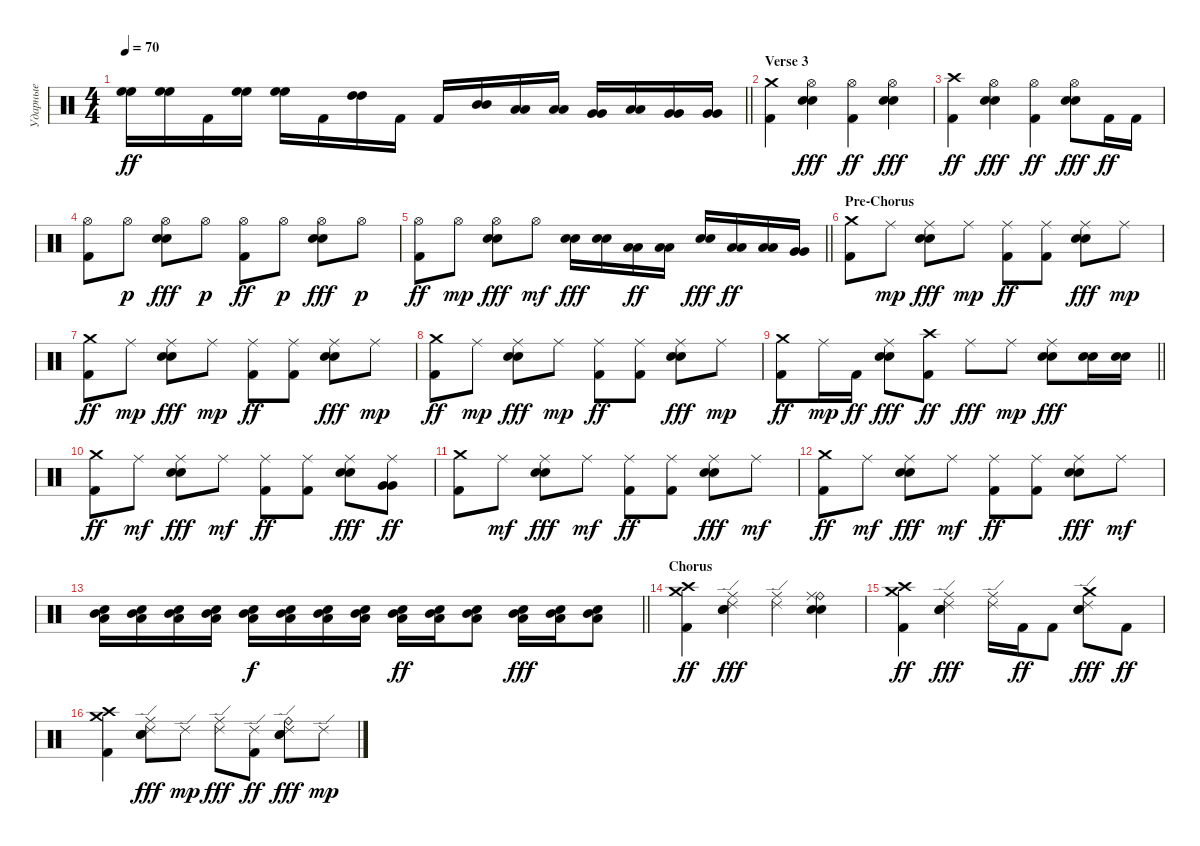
\track ("Ударные" "Ударные") {instrument percussion}
\staff {score}
\articulation defaults
\ts (4 4)
\tempo 70
\clef neutral
\barLineRight lightlight
\ks aminor
("High Floor Tom (hit)" "High Floor Tom (hit)").16{dy ff} ("High Floor Tom (hit)" "High Floor Tom (hit)").16 "Kick (hit) 2".16 ("High Floor Tom (hit)" "High Floor Tom (hit)").16 ("High Floor Tom (hit)" "High Floor Tom (hit)").16 "Kick (hit) 2".16 ("High Tom (hit)" "High Tom (hit)").16 "Kick (hit) 2".16 "Kick (hit) 2".16 ("Mid Tom (hit)" "Mid Tom (hit)").16 ("Low Tom (hit)" "Low Tom (hit)").16 ("Low Tom (hit)" "Low Tom (hit)").16 ("Very Low Tom (hit)" "Very Low Tom (hit)").16 ("Low Floor Tom (hit)" "Low Floor Tom (hit)").16 ("Very Low Tom (hit)" "Very Low Tom (hit)").16 ("Very Low Tom (hit)" "Very Low Tom (hit)").16 |
\section ("" "Verse 3")
("Crash medium (hit)" "Kick (hit) 2").4 ("Hi-Hat (open)" "Snare (hit) 2" "Electric Snare (hit)").4{dy fff} ("Hi-Hat (open)" "Kick (hit) 2").4{dy ff} ("Hi-Hat (open)" "Snare (hit) 2" "Electric Snare (hit)").4{dy fff} |
("Crash high (hit)" "Kick (hit) 2").4{dy ff} ("Hi-Hat (open)" "Snare (hit) 2" "Electric Snare (hit)").4{dy fff} ("Hi-Hat (open)" "Kick (hit) 2").4{dy ff} ("Hi-Hat (open)" "Snare (hit) 2" "Electric Snare (hit)").8{dy fff} "Kick (hit) 2".16{dy ff} "Kick (hit) 2".16 |
("Hi-Hat (open)" "Kick (hit) 2").8 "Hi-Hat (open)".8{dy p} ("Hi-Hat (open)" "Snare (hit) 2" "Electric Snare (hit)").8{dy fff} "Hi-Hat (open)".8{dy p} ("Hi-Hat (open)" "Kick (hit) 2").8{dy ff} "Hi-Hat (open)".8{dy p} ("Hi-Hat (open)" "Snare (hit) 2" "Electric Snare (hit)").8{dy fff} "Hi-Hat (open)".8{dy p} |
\barLineRight lightlight
("Hi-Hat (open)" "Kick (hit) 2").8{dy ff} "Hi-Hat (open)".8{dy mp} ("Hi-Hat (open)" "Snare (hit) 2" "Electric Snare (hit)").8{dy fff} "Hi-Hat (open)".8{dy mf} ("Snare (hit) 2" "Electric Snare (hit)").16{dy fff} ("Snare (hit) 2" "Electric Snare (hit)").16 ("Low Tom (hit)" "Low Tom (hit)").16{dy ff} ("Low Tom (hit)" "Low Tom (hit)").16 ("Snare (hit) 2" "Electric Snare (hit)").16{dy fff} ("Low Tom (hit)" "Low Tom (hit)").16{dy ff} ("Low Tom (hit)" "Low Tom (hit)").16 ("Very Low Tom (hit)" "Very Low Tom (hit)").16 |
\section ("" "Pre-Chorus")
("Crash medium (hit)" "Kick (hit) 2").8 "Ride (middle)".8{dy mp} ("Ride (middle)" "Snare (hit) 2" "Electric Snare (hit)").8{dy fff} "Ride (middle)".8{dy mp} ("Ride (middle)" "Kick (hit) 2").8{dy ff} ("Ride (middle)" "Kick (hit) 2").8 ("Ride (middle)" "Snare (hit) 2" "Electric Snare (hit)").8{dy fff} "Ride (middle)".8{dy mp} |
("Crash medium (hit)" "Kick (hit) 2").8{dy ff} "Ride (middle)".8{dy mp} ("Ride (middle)" "Snare (hit) 2" "Electric Snare (hit)").8{dy fff} "Ride (middle)".8{dy mp} ("Ride (middle)" "Kick (hit) 2").8{dy ff} ("Ride (middle)" "Kick (hit) 2").8 ("Ride (middle)" "Snare (hit) 2" "Electric Snare (hit)").8{dy fff} "Ride (middle)".8{dy mp} |
("Crash medium (hit)" "Kick (hit) 2").8{dy ff} "Ride (middle)".8{dy mp} ("Ride (middle)" "Snare (hit) 2" "Electric Snare (hit)").8{dy fff} "Ride (middle)".8{dy mp} ("Ride (middle)" "Kick (hit) 2").8{dy ff} ("Ride (middle)" "Kick (hit) 2").8 ("Ride (middle)" "Snare (hit) 2" "Electric Snare (hit)").8{dy fff} "Ride (middle)".8{dy mp} |
\barLineRight lightlight
("Crash medium (hit)" "Kick (hit) 2").8{dy ff} "Ride (middle)".16{dy mp} "Kick (hit) 2".16{dy ff} ("Ride (middle)" "Snare (hit) 2" "Electric Snare (hit)").8{dy fff} ("Crash high (hit)" "Kick (hit) 2").8{dy ff} "Ride (middle)".8{dy fff} "Ride (middle)".8{dy mp} ("Ride (middle)" "Snare (hit) 2" "Electric Snare (hit)").8{dy fff} ("Snare (hit) 2" "Electric Snare (hit)").16 ("Snare (hit) 2" "Electric Snare (hit)").16 |
("Crash medium (hit)" "Kick (hit) 2").8{dy ff} "Ride (middle)".8{dy mf} ("Ride (middle)" "Snare (hit) 2" "Electric Snare (hit)").8{dy fff} "Ride (middle)".8{dy mf} ("Ride (middle)" "Kick (hit) 2").8{dy ff} ("Ride (middle)" "Kick (hit) 2").8 ("Ride (middle)" "Snare (hit) 2" "Electric Snare (hit)").8{dy fff} ("Ride (middle)" "Very Low Tom (hit)" "Very Low Tom (hit)").8{dy ff} |
("Crash medium (hit)" "Kick (hit) 2").8 "Ride (middle)".8{dy mf} ("Ride (middle)" "Snare (hit) 2" "Electric Snare (hit)").8{dy fff} "Ride (middle)".8{dy mf} ("Ride (middle)" "Kick (hit) 2").8{dy ff} ("Ride (middle)" "Kick (hit) 2").8 ("Ride (middle)" "Snare (hit) 2" "Electric Snare (hit)").8{dy fff} "Ride (middle)".8{dy mf} |
("Crash medium (hit)" "Kick (hit) 2").8{dy ff} "Ride (middle)".8{dy mf} ("Ride (middle)" "Snare (hit) 2" "Electric Snare (hit)").8{dy fff} "Ride (middle)".8{dy mf} ("Ride (middle)" "Kick (hit) 2").8{dy ff} ("Ride (middle)" "Kick (hit) 2").8 ("Ride (middle)" "Snare (hit) 2" "Electric Snare (hit)").8{dy fff} "Ride (middle)".8{dy mf} |
\barLineRight lightlight
("Mid Tom (hit)" "Low Tom (hit)" "Snare (hit) 2").16 ("Mid Tom (hit)" "Low Tom (hit)" "Snare (hit) 2").16 ("Mid Tom (hit)" "Low Tom (hit)" "Snare (hit) 2").16 ("Mid Tom (hit)" "Low Tom (hit)" "Snare (hit) 2").16 ("Mid Tom (hit)" "Low Tom (hit)" "Snare (hit) 2").16{dy f} ("Mid Tom (hit)" "Low Tom (hit)" "Snare (hit) 2").16 ("Mid Tom (hit)" "Low Tom (hit)" "Snare (hit) 2").16 ("Mid Tom (hit)" "Low Tom (hit)" "Snare (hit) 2").16 ("Mid Tom (hit)" "Low Tom (hit)" "Snare (hit) 2").16{dy ff} ("Mid Tom (hit)" "Low Tom (hit)" "Snare (hit) 2").16 ("Mid Tom (hit)" "Low Tom (hit)" "Snare (hit) 2").8 ("Mid Tom (hit)" "Low Tom (hit)" "Snare (hit) 2").16{dy fff} ("Mid Tom (hit)" "Low Tom (hit)" "Snare (hit) 2").16 ("Mid Tom (hit)" "Low Tom (hit)" "Snare (hit) 2").8 |
\section ("" "Chorus")
("Crash high (hit)" "Crash medium (hit)" "Kick (hit) 2").4{dy ff} ("Ride (middle)" "Ride (edge) 2" "Snare (hit) 2" "Electric Snare (hit)").4{dy fff} ("Ride (middle)" "Ride (edge) 2").4 ("Ride (bell)" "Ride (middle)" "Snare (hit) 2" "Electric Snare (hit)").4 |
("Crash high (hit)" "Crash medium (hit)" "Kick (hit) 2").4{dy ff} ("Ride (edge) 2" "Ride (middle)" "Snare (hit) 2" "Electric Snare (hit)").4{dy fff} ("Ride (edge) 2" "Ride (middle)").16 "Kick (hit) 2".16{dy ff} "Kick (hit) 2".8 ("Ride (edge) 2" "Crash medium (hit)" "Snare (hit) 2" "Electric Snare (hit)").8{dy fff} "Kick (hit) 2".8{dy ff} |
("Crash high (hit)" "Crash medium (hit)" "Kick (hit) 2").4 ("Ride (edge) 2" "Ride (middle)" "Snare (hit) 2" "Electric Snare (hit)").8{dy fff} "Ride (edge) 2".8{dy mp} ("Ride (edge) 2" "Ride (middle)").8{dy fff} ("Ride (edge) 2" "Kick (hit) 2").8{dy ff} ("Ride (bell)" "Ride (edge) 2" "Snare (hit) 2" "Electric Snare (hit)").8{dy fff} "Ride (edge) 2".8{dy mp}
